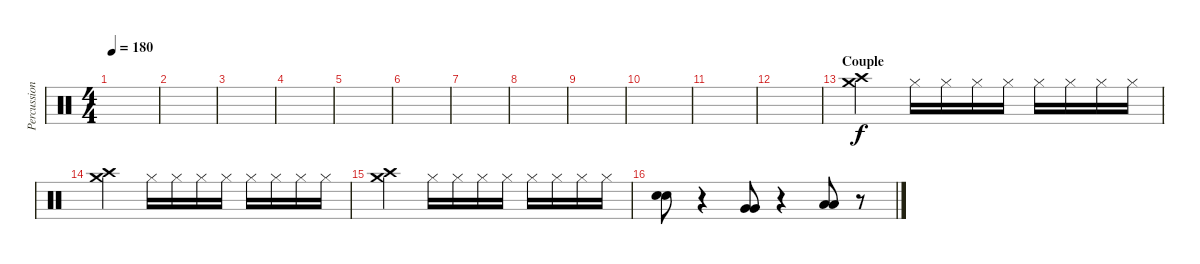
\track ("Percussion" "Percussion") {instrument percussion}
\staff {score}
\articulation defaults
\ts (4 4)
\tempo 180
\clef neutral
\ks c
|
|
|
|
|
|
|
|
|
|
|
|
\section ("" "Couple")
("Crash high (hit)" "Crash medium (hit)").2 "Hi-Hat (closed)".16 "Hi-Hat (closed)".16 "Hi-Hat (closed)".16 "Hi-Hat (closed)".16 "Hi-Hat (closed)".16 "Hi-Hat (closed)".16 "Hi-Hat (closed)".16 "Hi-Hat (closed)".16 |
("Crash high (hit)" "Crash medium (hit)").2 "Hi-Hat (closed)".16 "Hi-Hat (closed)".16 "Hi-Hat (closed)".16 "Hi-Hat (closed)".16 "Hi-Hat (closed)".16 "Hi-Hat (closed)".16 "Hi-Hat (closed)".16 "Hi-Hat (closed)".16 |
("Crash high (hit)" "Crash medium (hit)").2 "Hi-Hat (closed)".16 "Hi-Hat (closed)".16 "Hi-Hat (closed)".16 "Hi-Hat (closed)".16 "Hi-Hat (closed)".16 "Hi-Hat (closed)".16 "Hi-Hat (closed)".16 "Hi-Hat (closed)".16 |
("Snare (hit) 2" "Snare (hit) 2").8 r.4 ("Very Low Tom (hit)" "Very Low Tom (hit)").8 r.4 ("Low Tom (hit)" "Low Tom (hit)").8 r.8
